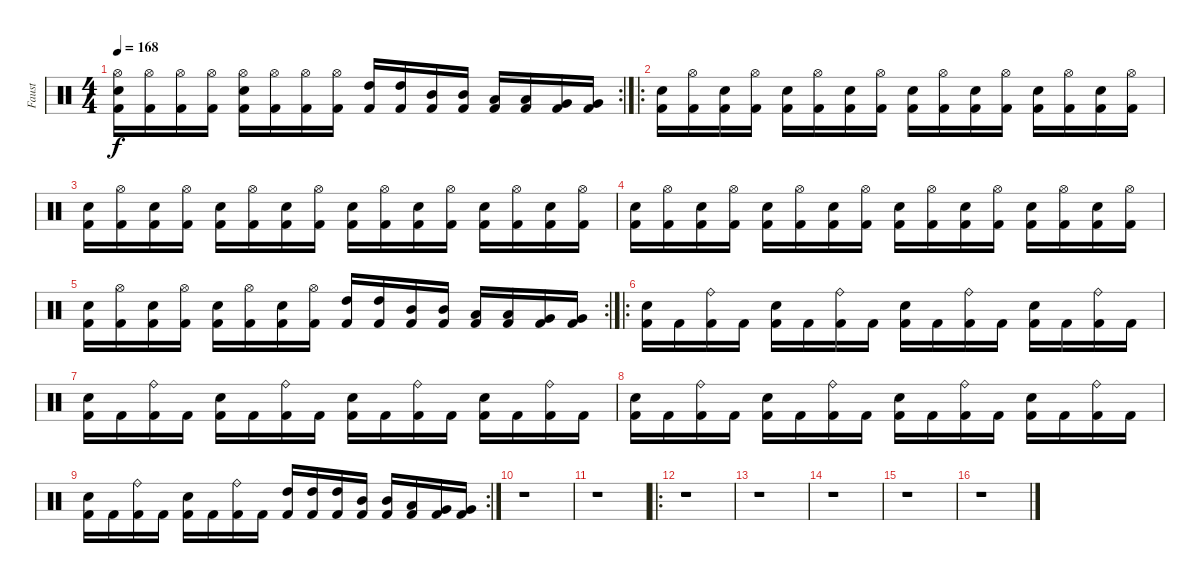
\track ("Faust" "Faust") {instrument percussion}
\staff {score}
\articulation defaults
\rc 2
\ts (4 4)
\tempo 168
\clef neutral
\ks c
("Hi-Hat (open)" "Electric Snare (hit)" "Kick (hit) 2").16{dy f} ("Hi-Hat (open)" "Kick (hit) 2").16 ("Hi-Hat (open)" "Kick (hit) 2").16 ("Hi-Hat (open)" "Kick (hit) 2").16 ("Hi-Hat (open)" "Electric Snare (hit)" "Kick (hit) 2").16 ("Hi-Hat (open)" "Kick (hit) 2").16 ("Hi-Hat (open)" "Kick (hit) 2").16 ("Hi-Hat (open)" "Kick (hit) 2").16 ("High Tom (hit)" "Kick (hit) 2").16 ("High Tom (hit)" "Kick (hit) 2").16 ("Mid Tom (hit)" "Kick (hit) 2").16 ("Mid Tom (hit)" "Kick (hit) 2").16 ("Low Tom (hit)" "Kick (hit) 2").16 ("Low Tom (hit)" "Kick (hit) 2").16 ("Very Low Tom (hit)" "Kick (hit) 2").16 ("Very Low Tom (hit)" "Kick (hit) 2").16 |
\ro
("Electric Snare (hit)" "Kick (hit) 2").16 ("Hi-Hat (open)" "Kick (hit) 2").16 ("Electric Snare (hit)" "Kick (hit) 2").16 ("Hi-Hat (open)" "Kick (hit) 2").16 ("Electric Snare (hit)" "Kick (hit) 2").16 ("Hi-Hat (open)" "Kick (hit) 2").16 ("Electric Snare (hit)" "Kick (hit) 2").16 ("Hi-Hat (open)" "Kick (hit) 2").16 ("Electric Snare (hit)" "Kick (hit) 2").16 ("Hi-Hat (open)" "Kick (hit) 2").16 ("Electric Snare (hit)" "Kick (hit) 2").16 ("Hi-Hat (open)" "Kick (hit) 2").16 ("Electric Snare (hit)" "Kick (hit) 2").16 ("Hi-Hat (open)" "Kick (hit) 2").16 ("Electric Snare (hit)" "Kick (hit) 2").16 ("Hi-Hat (open)" "Kick (hit) 2").16 |
("Electric Snare (hit)" "Kick (hit) 2").16 ("Hi-Hat (open)" "Kick (hit) 2").16 ("Electric Snare (hit)" "Kick (hit) 2").16 ("Hi-Hat (open)" "Kick (hit) 2").16 ("Electric Snare (hit)" "Kick (hit) 2").16 ("Hi-Hat (open)" "Kick (hit) 2").16 ("Electric Snare (hit)" "Kick (hit) 2").16 ("Hi-Hat (open)" "Kick (hit) 2").16 ("Electric Snare (hit)" "Kick (hit) 2").16 ("Hi-Hat (open)" "Kick (hit) 2").16 ("Electric Snare (hit)" "Kick (hit) 2").16 ("Hi-Hat (open)" "Kick (hit) 2").16 ("Electric Snare (hit)" "Kick (hit) 2").16 ("Hi-Hat (open)" "Kick (hit) 2").16 ("Electric Snare (hit)" "Kick (hit) 2").16 ("Hi-Hat (open)" "Kick (hit) 2").16 |
("Electric Snare (hit)" "Kick (hit) 2").16 ("Hi-Hat (open)" "Kick (hit) 2").16 ("Electric Snare (hit)" "Kick (hit) 2").16 ("Hi-Hat (open)" "Kick (hit) 2").16 ("Electric Snare (hit)" "Kick (hit) 2").16 ("Hi-Hat (open)" "Kick (hit) 2").16 ("Electric Snare (hit)" "Kick (hit) 2").16 ("Hi-Hat (open)" "Kick (hit) 2").16 ("Electric Snare (hit)" "Kick (hit) 2").16 ("Hi-Hat (open)" "Kick (hit) 2").16 ("Electric Snare (hit)" "Kick (hit) 2").16 ("Hi-Hat (open)" "Kick (hit) 2").16 ("Electric Snare (hit)" "Kick (hit) 2").16 ("Hi-Hat (open)" "Kick (hit) 2").16 ("Electric Snare (hit)" "Kick (hit) 2").16 ("Hi-Hat (open)" "Kick (hit) 2").16 |
\rc 2
("Electric Snare (hit)" "Kick (hit) 2").16 ("Hi-Hat (open)" "Kick (hit) 2").16 ("Electric Snare (hit)" "Kick (hit) 2").16 ("Hi-Hat (open)" "Kick (hit) 2").16 ("Electric Snare (hit)" "Kick (hit) 2").16 ("Hi-Hat (open)" "Kick (hit) 2").16 ("Electric Snare (hit)" "Kick (hit) 2").16 ("Hi-Hat (open)" "Kick (hit) 2").16 ("High Tom (hit)" "Kick (hit) 2").16 ("High Tom (hit)" "Kick (hit) 2").16 ("Mid Tom (hit)" "Kick (hit) 2").16 ("Mid Tom (hit)" "Kick (hit) 2").16 ("Low Tom (hit)" "Kick (hit) 2").16 ("Low Tom (hit)" "Kick (hit) 2").16 ("Very Low Tom (hit)" "Kick (hit) 2").16 ("Very Low Tom (hit)" "Kick (hit) 2").16 |
\ro
("Electric Snare (hit)" "Kick (hit) 2").16 "Kick (hit) 2".16 ("Ride (bell)" "Kick (hit) 2").16 "Kick (hit) 2".16 ("Electric Snare (hit)" "Kick (hit) 2").16 "Kick (hit) 2".16 ("Ride (bell)" "Kick (hit) 2").16 "Kick (hit) 2".16 ("Electric Snare (hit)" "Kick (hit) 2").16 "Kick (hit) 2".16 ("Ride (bell)" "Kick (hit) 2").16 "Kick (hit) 2".16 ("Electric Snare (hit)" "Kick (hit) 2").16 "Kick (hit) 2".16 ("Ride (bell)" "Kick (hit) 2").16 "Kick (hit) 2".16 |
("Electric Snare (hit)" "Kick (hit) 2").16 "Kick (hit) 2".16 ("Ride (bell)" "Kick (hit) 2").16 "Kick (hit) 2".16 ("Electric Snare (hit)" "Kick (hit) 2").16 "Kick (hit) 2".16 ("Ride (bell)" "Kick (hit) 2").16 "Kick (hit) 2".16 ("Electric Snare (hit)" "Kick (hit) 2").16 "Kick (hit) 2".16 ("Ride (bell)" "Kick (hit) 2").16 "Kick (hit) 2".16 ("Electric Snare (hit)" "Kick (hit) 2").16 "Kick (hit) 2".16 ("Ride (bell)" "Kick (hit) 2").16 "Kick (hit) 2".16 |
("Electric Snare (hit)" "Kick (hit) 2").16 "Kick (hit) 2".16 ("Ride (bell)" "Kick (hit) 2").16 "Kick (hit) 2".16 ("Electric Snare (hit)" "Kick (hit) 2").16 "Kick (hit) 2".16 ("Ride (bell)" "Kick (hit) 2").16 "Kick (hit) 2".16 ("Electric Snare (hit)" "Kick (hit) 2").16 "Kick (hit) 2".16 ("Ride (bell)" "Kick (hit) 2").16 "Kick (hit) 2".16 ("Electric Snare (hit)" "Kick (hit) 2").16 "Kick (hit) 2".16 ("Ride (bell)" "Kick (hit) 2").16 "Kick (hit) 2".16 |
\rc 2
("Electric Snare (hit)" "Kick (hit) 2").16 "Kick (hit) 2".16 ("Ride (bell)" "Kick (hit) 2").16 "Kick (hit) 2".16 ("Electric Snare (hit)" "Kick (hit) 2").16 "Kick (hit) 2".16 ("Ride (bell)" "Kick (hit) 2").16 "Kick (hit) 2".16 ("High Tom (hit)" "Kick (hit) 2").16 ("High Tom (hit)" "Kick (hit) 2").16 ("High Tom (hit)" "Kick (hit) 2").16 ("Mid Tom (hit)" "Kick (hit) 2").16 ("Mid Tom (hit)" "Kick (hit) 2").16 ("Low Tom (hit)" "Kick (hit) 2").16 ("Very Low Tom (hit)" "Kick (hit) 2").16 ("Very Low Tom (hit)" "Kick (hit) 2").16 |
r.1 |
r.1 |
\ro
r.1 |
r.1 |
r.1 |
r.1 |
r.1
